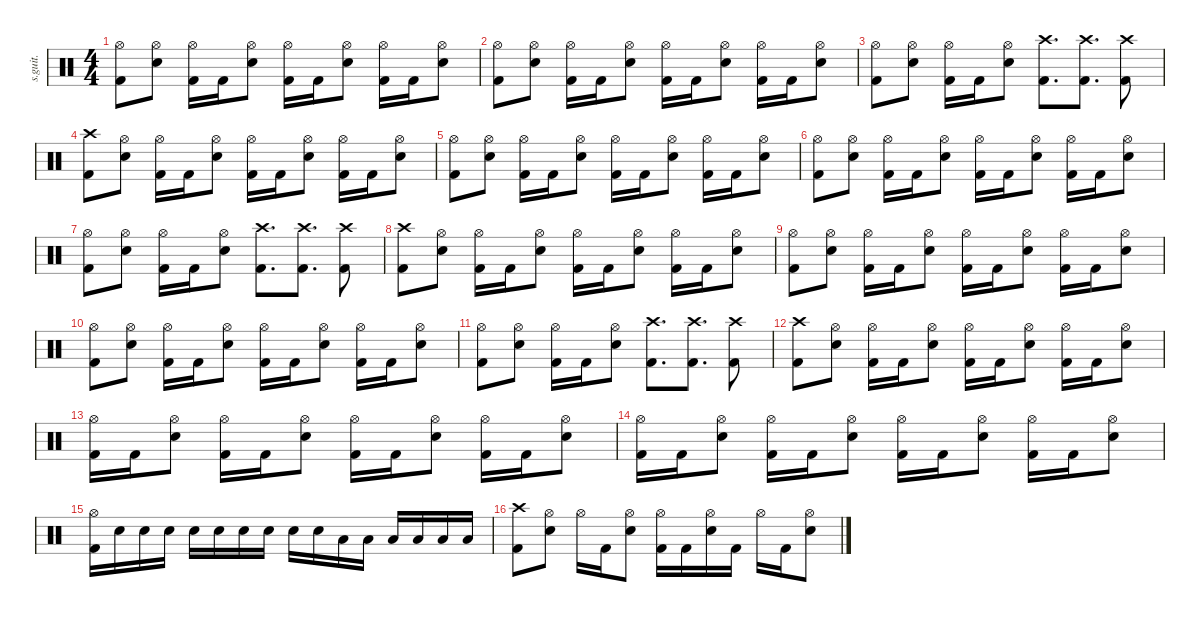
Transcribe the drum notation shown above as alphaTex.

\defaultSystemsLayout 4
\hideDynamics
\bracketExtendMode nobrackets
\track ("" "s.guit.") {instrument percussion}
\staff {score}
\articulation defaults
\ts (4 4)
\tempo (154 hide)
\clef neutral
\ks c
("Hi-Hat (open)" "Kick (hit) 2").8{dy f} ("Hi-Hat (open)" "Snare (hit) 2").8 ("Hi-Hat (open)" "Kick (hit) 2").16 "Kick (hit) 2".16 ("Hi-Hat (open)" "Snare (hit) 2").8 ("Hi-Hat (open)" "Kick (hit) 2").16 "Kick (hit) 2".16 ("Hi-Hat (open)" "Snare (hit) 2").8 ("Hi-Hat (open)" "Kick (hit) 2").16 "Kick (hit) 2".16 ("Hi-Hat (open)" "Snare (hit) 2").8 |
\tempo (153 hide)
("Hi-Hat (open)" "Kick (hit) 2").8 ("Hi-Hat (open)" "Snare (hit) 2").8 ("Hi-Hat (open)" "Kick (hit) 2").16 "Kick (hit) 2".16 ("Hi-Hat (open)" "Snare (hit) 2").8 ("Hi-Hat (open)" "Kick (hit) 2").16 "Kick (hit) 2".16 ("Hi-Hat (open)" "Snare (hit) 2").8 ("Hi-Hat (open)" "Kick (hit) 2").16 "Kick (hit) 2".16 ("Hi-Hat (open)" "Snare (hit) 2").8 |
("Hi-Hat (open)" "Kick (hit) 2").8 ("Hi-Hat (open)" "Snare (hit) 2").8 ("Hi-Hat (open)" "Kick (hit) 2").16 "Kick (hit) 2".16 ("Hi-Hat (open)" "Snare (hit) 2").8 ("Crash high (hit)" "Kick (hit) 2").8{d} ("Crash high (hit)" "Kick (hit) 2").8{d} ("Crash high (hit)" "Kick (hit) 2").8 |
("Crash high (hit)" "Kick (hit) 2").8 ("Hi-Hat (open)" "Snare (hit) 2").8 ("Hi-Hat (open)" "Kick (hit) 2").16 "Kick (hit) 2".16 ("Hi-Hat (open)" "Snare (hit) 2").8 ("Hi-Hat (open)" "Kick (hit) 2").16 "Kick (hit) 2".16 ("Hi-Hat (open)" "Snare (hit) 2").8 ("Hi-Hat (open)" "Kick (hit) 2").16 "Kick (hit) 2".16 ("Hi-Hat (open)" "Snare (hit) 2").8 |
("Hi-Hat (open)" "Kick (hit) 2").8 ("Hi-Hat (open)" "Snare (hit) 2").8 ("Hi-Hat (open)" "Kick (hit) 2").16 "Kick (hit) 2".16 ("Hi-Hat (open)" "Snare (hit) 2").8 ("Hi-Hat (open)" "Kick (hit) 2").16 "Kick (hit) 2".16 ("Hi-Hat (open)" "Snare (hit) 2").8 ("Hi-Hat (open)" "Kick (hit) 2").16 "Kick (hit) 2".16 ("Hi-Hat (open)" "Snare (hit) 2").8 |
("Hi-Hat (open)" "Kick (hit) 2").8 ("Hi-Hat (open)" "Snare (hit) 2").8 ("Hi-Hat (open)" "Kick (hit) 2").16 "Kick (hit) 2".16 ("Hi-Hat (open)" "Snare (hit) 2").8 ("Hi-Hat (open)" "Kick (hit) 2").16 "Kick (hit) 2".16 ("Hi-Hat (open)" "Snare (hit) 2").8 ("Hi-Hat (open)" "Kick (hit) 2").16 "Kick (hit) 2".16 ("Hi-Hat (open)" "Snare (hit) 2").8 |
("Hi-Hat (open)" "Kick (hit) 2").8 ("Hi-Hat (open)" "Snare (hit) 2").8 ("Hi-Hat (open)" "Kick (hit) 2").16 "Kick (hit) 2".16 ("Hi-Hat (open)" "Snare (hit) 2").8 ("Crash high (hit)" "Kick (hit) 2").8{d} ("Crash high (hit)" "Kick (hit) 2").8{d} ("Crash high (hit)" "Kick (hit) 2").8 |
("Crash high (hit)" "Kick (hit) 2").8 ("Hi-Hat (open)" "Snare (hit) 2").8 ("Hi-Hat (open)" "Kick (hit) 2").16 "Kick (hit) 2".16 ("Hi-Hat (open)" "Snare (hit) 2").8 ("Hi-Hat (open)" "Kick (hit) 2").16 "Kick (hit) 2".16 ("Hi-Hat (open)" "Snare (hit) 2").8 ("Hi-Hat (open)" "Kick (hit) 2").16 "Kick (hit) 2".16 ("Hi-Hat (open)" "Snare (hit) 2").8 |
("Hi-Hat (open)" "Kick (hit) 2").8 ("Hi-Hat (open)" "Snare (hit) 2").8 ("Hi-Hat (open)" "Kick (hit) 2").16 "Kick (hit) 2".16 ("Hi-Hat (open)" "Snare (hit) 2").8 ("Hi-Hat (open)" "Kick (hit) 2").16 "Kick (hit) 2".16 ("Hi-Hat (open)" "Snare (hit) 2").8 ("Hi-Hat (open)" "Kick (hit) 2").16 "Kick (hit) 2".16 ("Hi-Hat (open)" "Snare (hit) 2").8 |
("Hi-Hat (open)" "Kick (hit) 2").8 ("Hi-Hat (open)" "Snare (hit) 2").8 ("Hi-Hat (open)" "Kick (hit) 2").16 "Kick (hit) 2".16 ("Hi-Hat (open)" "Snare (hit) 2").8 ("Hi-Hat (open)" "Kick (hit) 2").16 "Kick (hit) 2".16 ("Hi-Hat (open)" "Snare (hit) 2").8 ("Hi-Hat (open)" "Kick (hit) 2").16 "Kick (hit) 2".16 ("Hi-Hat (open)" "Snare (hit) 2").8 |
("Hi-Hat (open)" "Kick (hit) 2").8 ("Hi-Hat (open)" "Snare (hit) 2").8 ("Hi-Hat (open)" "Kick (hit) 2").16 "Kick (hit) 2".16 ("Hi-Hat (open)" "Snare (hit) 2").8 ("Crash high (hit)" "Kick (hit) 2").8{d} ("Crash high (hit)" "Kick (hit) 2").8{d} ("Crash high (hit)" "Kick (hit) 2").8 |
("Crash high (hit)" "Kick (hit) 2").8 ("Hi-Hat (open)" "Snare (hit) 2").8 ("Hi-Hat (open)" "Kick (hit) 2").16 "Kick (hit) 2".16 ("Hi-Hat (open)" "Snare (hit) 2").8 ("Hi-Hat (open)" "Kick (hit) 2").16 "Kick (hit) 2".16 ("Hi-Hat (open)" "Snare (hit) 2").8 ("Hi-Hat (open)" "Kick (hit) 2").16 "Kick (hit) 2".16 ("Hi-Hat (open)" "Snare (hit) 2").8 |
("Hi-Hat (open)" "Kick (hit) 2").16 "Kick (hit) 2".16 ("Hi-Hat (open)" "Snare (hit) 2").8 ("Hi-Hat (open)" "Kick (hit) 2").16 "Kick (hit) 2".16 ("Hi-Hat (open)" "Snare (hit) 2").8 ("Hi-Hat (open)" "Kick (hit) 2").16 "Kick (hit) 2".16 ("Hi-Hat (open)" "Snare (hit) 2").8 ("Hi-Hat (open)" "Kick (hit) 2").16 "Kick (hit) 2".16 ("Hi-Hat (open)" "Snare (hit) 2").8 |
("Hi-Hat (open)" "Kick (hit) 2").16 "Kick (hit) 2".16 ("Hi-Hat (open)" "Snare (hit) 2").8 ("Hi-Hat (open)" "Kick (hit) 2").16 "Kick (hit) 2".16 ("Hi-Hat (open)" "Snare (hit) 2").8 ("Hi-Hat (open)" "Kick (hit) 2").16 "Kick (hit) 2".16 ("Hi-Hat (open)" "Snare (hit) 2").8 ("Hi-Hat (open)" "Kick (hit) 2").16 "Kick (hit) 2".16 ("Hi-Hat (open)" "Snare (hit) 2").8 |
("Hi-Hat (open)" "Kick (hit) 2").16 "Snare (hit) 2".16 "Snare (hit) 2".16 "Snare (hit) 2".16 "Snare (hit) 2".16 "Snare (hit) 2".16 "Snare (hit) 2".16 "Snare (hit) 2".16 "Snare (hit) 2".16 "Snare (hit) 2".16 "Low Tom (hit)".16 "Low Tom (hit)".16 "Low Tom (hit)".16 "Low Tom (hit)".16 "Low Floor Tom (hit)".16 "Low Floor Tom (hit)".16 |
("Crash high (hit)" "Kick (hit) 2").8 ("Hi-Hat (open)" "Snare (hit) 2").8 "Hi-Hat (open)".16 "Kick (hit) 2".16 ("Hi-Hat (open)" "Snare (hit) 2").8 ("Hi-Hat (open)" "Kick (hit) 2").16 "Kick (hit) 2".16 ("Hi-Hat (open)" "Snare (hit) 2").16 "Kick (hit) 2".16 "Hi-Hat (open)".16 "Kick (hit) 2".16 ("Hi-Hat (open)" "Snare (hit) 2").8
